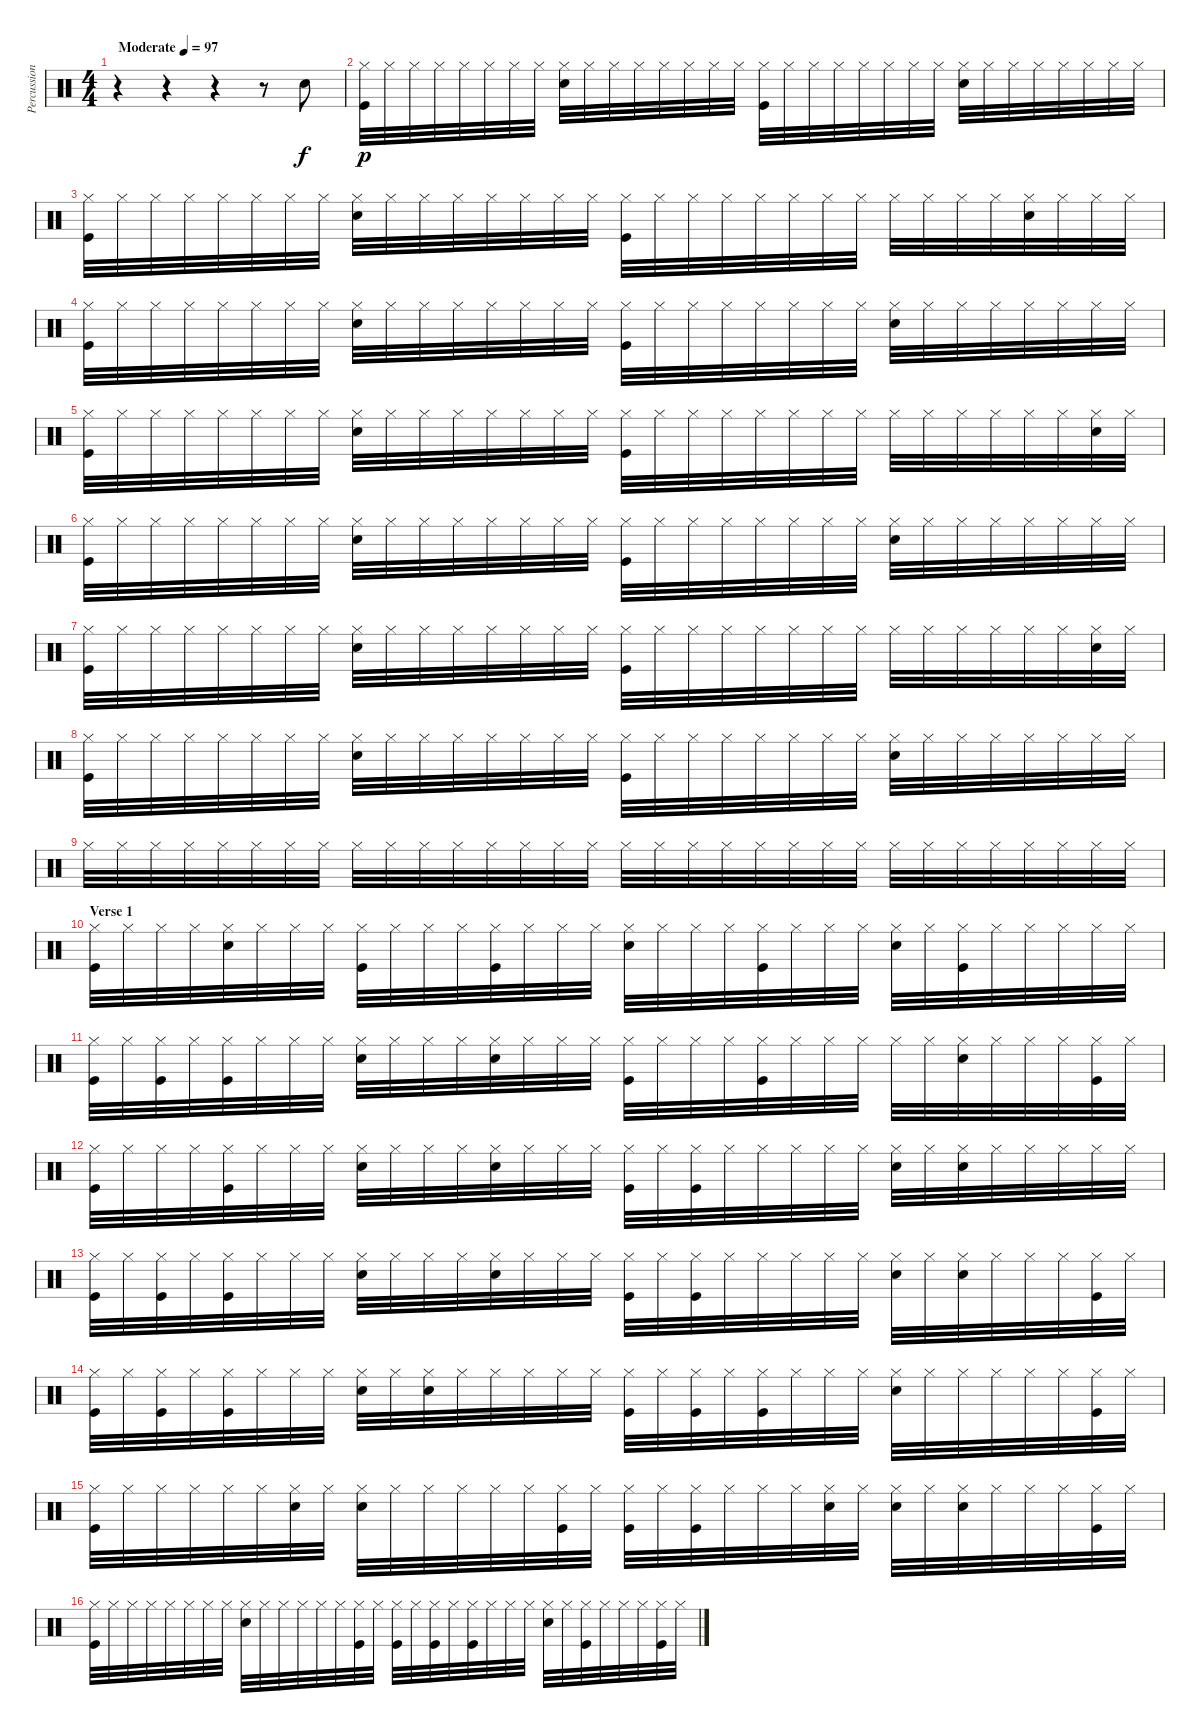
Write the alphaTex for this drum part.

\track ("Percussion" "Percussion") {instrument percussion}
\staff {score}
\articulation defaults
\ts (4 4)
\tempo (97 "Moderate")
\clef neutral
\ks c
r.4{dy f} r.4 r.4 r.8 "Electric Snare (hit)".8 |
("Hi-Hat (closed)" "Kick (hit)").32{dy p} "Hi-Hat (closed)".32 "Hi-Hat (closed)".32 "Hi-Hat (closed)".32 "Hi-Hat (closed)".32 "Hi-Hat (closed)".32 "Hi-Hat (closed)".32 "Hi-Hat (closed)".32 ("Hi-Hat (closed)" "Electric Snare (hit)").32 "Hi-Hat (closed)".32 "Hi-Hat (closed)".32 "Hi-Hat (closed)".32 "Hi-Hat (closed)".32 "Hi-Hat (closed)".32 "Hi-Hat (closed)".32 "Hi-Hat (closed)".32 ("Hi-Hat (closed)" "Kick (hit)").32 "Hi-Hat (closed)".32 "Hi-Hat (closed)".32 "Hi-Hat (closed)".32 "Hi-Hat (closed)".32 "Hi-Hat (closed)".32 "Hi-Hat (closed)".32 "Hi-Hat (closed)".32 ("Hi-Hat (closed)" "Electric Snare (hit)").32 "Hi-Hat (closed)".32 "Hi-Hat (closed)".32 "Hi-Hat (closed)".32 "Hi-Hat (closed)".32 "Hi-Hat (closed)".32 "Hi-Hat (closed)".32 "Hi-Hat (closed)".32 |
("Hi-Hat (closed)" "Kick (hit)").32 "Hi-Hat (closed)".32 "Hi-Hat (closed)".32 "Hi-Hat (closed)".32 "Hi-Hat (closed)".32 "Hi-Hat (closed)".32 "Hi-Hat (closed)".32 "Hi-Hat (closed)".32 ("Hi-Hat (closed)" "Electric Snare (hit)").32 "Hi-Hat (closed)".32 "Hi-Hat (closed)".32 "Hi-Hat (closed)".32 "Hi-Hat (closed)".32 "Hi-Hat (closed)".32 "Hi-Hat (closed)".32 "Hi-Hat (closed)".32 ("Hi-Hat (closed)" "Kick (hit)").32 "Hi-Hat (closed)".32 "Hi-Hat (closed)".32 "Hi-Hat (closed)".32 "Hi-Hat (closed)".32 "Hi-Hat (closed)".32 "Hi-Hat (closed)".32 "Hi-Hat (closed)".32 "Hi-Hat (closed)".32 "Hi-Hat (closed)".32 "Hi-Hat (closed)".32 "Hi-Hat (closed)".32 ("Hi-Hat (closed)" "Electric Snare (hit)").32 "Hi-Hat (closed)".32 "Hi-Hat (closed)".32 "Hi-Hat (closed)".32 |
("Hi-Hat (closed)" "Kick (hit)").32 "Hi-Hat (closed)".32 "Hi-Hat (closed)".32 "Hi-Hat (closed)".32 "Hi-Hat (closed)".32 "Hi-Hat (closed)".32 "Hi-Hat (closed)".32 "Hi-Hat (closed)".32 ("Hi-Hat (closed)" "Electric Snare (hit)").32 "Hi-Hat (closed)".32 "Hi-Hat (closed)".32 "Hi-Hat (closed)".32 "Hi-Hat (closed)".32 "Hi-Hat (closed)".32 "Hi-Hat (closed)".32 "Hi-Hat (closed)".32 ("Hi-Hat (closed)" "Kick (hit)").32 "Hi-Hat (closed)".32 "Hi-Hat (closed)".32 "Hi-Hat (closed)".32 "Hi-Hat (closed)".32 "Hi-Hat (closed)".32 "Hi-Hat (closed)".32 "Hi-Hat (closed)".32 ("Hi-Hat (closed)" "Electric Snare (hit)").32 "Hi-Hat (closed)".32 "Hi-Hat (closed)".32 "Hi-Hat (closed)".32 "Hi-Hat (closed)".32 "Hi-Hat (closed)".32 "Hi-Hat (closed)".32 "Hi-Hat (closed)".32 |
("Hi-Hat (closed)" "Kick (hit)").32 "Hi-Hat (closed)".32 "Hi-Hat (closed)".32 "Hi-Hat (closed)".32 "Hi-Hat (closed)".32 "Hi-Hat (closed)".32 "Hi-Hat (closed)".32 "Hi-Hat (closed)".32 ("Hi-Hat (closed)" "Electric Snare (hit)").32 "Hi-Hat (closed)".32 "Hi-Hat (closed)".32 "Hi-Hat (closed)".32 "Hi-Hat (closed)".32 "Hi-Hat (closed)".32 "Hi-Hat (closed)".32 "Hi-Hat (closed)".32 ("Hi-Hat (closed)" "Kick (hit)").32 "Hi-Hat (closed)".32 "Hi-Hat (closed)".32 "Hi-Hat (closed)".32 "Hi-Hat (closed)".32 "Hi-Hat (closed)".32 "Hi-Hat (closed)".32 "Hi-Hat (closed)".32 "Hi-Hat (closed)".32 "Hi-Hat (closed)".32 "Hi-Hat (closed)".32 "Hi-Hat (closed)".32 "Hi-Hat (closed)".32 "Hi-Hat (closed)".32 ("Hi-Hat (closed)" "Electric Snare (hit)").32 "Hi-Hat (closed)".32 |
("Hi-Hat (closed)" "Kick (hit)").32 "Hi-Hat (closed)".32 "Hi-Hat (closed)".32 "Hi-Hat (closed)".32 "Hi-Hat (closed)".32 "Hi-Hat (closed)".32 "Hi-Hat (closed)".32 "Hi-Hat (closed)".32 ("Hi-Hat (closed)" "Electric Snare (hit)").32 "Hi-Hat (closed)".32 "Hi-Hat (closed)".32 "Hi-Hat (closed)".32 "Hi-Hat (closed)".32 "Hi-Hat (closed)".32 "Hi-Hat (closed)".32 "Hi-Hat (closed)".32 ("Hi-Hat (closed)" "Kick (hit)").32 "Hi-Hat (closed)".32 "Hi-Hat (closed)".32 "Hi-Hat (closed)".32 "Hi-Hat (closed)".32 "Hi-Hat (closed)".32 "Hi-Hat (closed)".32 "Hi-Hat (closed)".32 ("Hi-Hat (closed)" "Electric Snare (hit)").32 "Hi-Hat (closed)".32 "Hi-Hat (closed)".32 "Hi-Hat (closed)".32 "Hi-Hat (closed)".32 "Hi-Hat (closed)".32 "Hi-Hat (closed)".32 "Hi-Hat (closed)".32 |
("Hi-Hat (closed)" "Kick (hit)").32 "Hi-Hat (closed)".32 "Hi-Hat (closed)".32 "Hi-Hat (closed)".32 "Hi-Hat (closed)".32 "Hi-Hat (closed)".32 "Hi-Hat (closed)".32 "Hi-Hat (closed)".32 ("Hi-Hat (closed)" "Electric Snare (hit)").32 "Hi-Hat (closed)".32 "Hi-Hat (closed)".32 "Hi-Hat (closed)".32 "Hi-Hat (closed)".32 "Hi-Hat (closed)".32 "Hi-Hat (closed)".32 "Hi-Hat (closed)".32 ("Hi-Hat (closed)" "Kick (hit)").32 "Hi-Hat (closed)".32 "Hi-Hat (closed)".32 "Hi-Hat (closed)".32 "Hi-Hat (closed)".32 "Hi-Hat (closed)".32 "Hi-Hat (closed)".32 "Hi-Hat (closed)".32 "Hi-Hat (closed)".32 "Hi-Hat (closed)".32 "Hi-Hat (closed)".32 "Hi-Hat (closed)".32 "Hi-Hat (closed)".32 "Hi-Hat (closed)".32 ("Hi-Hat (closed)" "Electric Snare (hit)").32 "Hi-Hat (closed)".32 |
("Hi-Hat (closed)" "Kick (hit)").32 "Hi-Hat (closed)".32 "Hi-Hat (closed)".32 "Hi-Hat (closed)".32 "Hi-Hat (closed)".32 "Hi-Hat (closed)".32 "Hi-Hat (closed)".32 "Hi-Hat (closed)".32 ("Hi-Hat (closed)" "Electric Snare (hit)").32 "Hi-Hat (closed)".32 "Hi-Hat (closed)".32 "Hi-Hat (closed)".32 "Hi-Hat (closed)".32 "Hi-Hat (closed)".32 "Hi-Hat (closed)".32 "Hi-Hat (closed)".32 ("Hi-Hat (closed)" "Kick (hit)").32 "Hi-Hat (closed)".32 "Hi-Hat (closed)".32 "Hi-Hat (closed)".32 "Hi-Hat (closed)".32 "Hi-Hat (closed)".32 "Hi-Hat (closed)".32 "Hi-Hat (closed)".32 ("Hi-Hat (closed)" "Electric Snare (hit)").32 "Hi-Hat (closed)".32 "Hi-Hat (closed)".32 "Hi-Hat (closed)".32 "Hi-Hat (closed)".32 "Hi-Hat (closed)".32 "Hi-Hat (closed)".32 "Hi-Hat (closed)".32 |
"Hi-Hat (closed)".32 "Hi-Hat (closed)".32 "Hi-Hat (closed)".32 "Hi-Hat (closed)".32 "Hi-Hat (closed)".32 "Hi-Hat (closed)".32 "Hi-Hat (closed)".32 "Hi-Hat (closed)".32 "Hi-Hat (closed)".32 "Hi-Hat (closed)".32 "Hi-Hat (closed)".32 "Hi-Hat (closed)".32 "Hi-Hat (closed)".32 "Hi-Hat (closed)".32 "Hi-Hat (closed)".32 "Hi-Hat (closed)".32 "Hi-Hat (closed)".32 "Hi-Hat (closed)".32 "Hi-Hat (closed)".32 "Hi-Hat (closed)".32 "Hi-Hat (closed)".32 "Hi-Hat (closed)".32 "Hi-Hat (closed)".32 "Hi-Hat (closed)".32 "Hi-Hat (closed)".32 "Hi-Hat (closed)".32 "Hi-Hat (closed)".32 "Hi-Hat (closed)".32 "Hi-Hat (closed)".32 "Hi-Hat (closed)".32 "Hi-Hat (closed)".32 "Hi-Hat (closed)".32 |
\section ("" "Verse 1")
("Hi-Hat (closed)" "Kick (hit)").32 "Hi-Hat (closed)".32 "Hi-Hat (closed)".32 "Hi-Hat (closed)".32 ("Hi-Hat (closed)" "Electric Snare (hit)").32 "Hi-Hat (closed)".32 "Hi-Hat (closed)".32 "Hi-Hat (closed)".32 ("Hi-Hat (closed)" "Kick (hit)").32 "Hi-Hat (closed)".32 "Hi-Hat (closed)".32 "Hi-Hat (closed)".32 ("Hi-Hat (closed)" "Kick (hit)").32 "Hi-Hat (closed)".32 "Hi-Hat (closed)".32 "Hi-Hat (closed)".32 ("Hi-Hat (closed)" "Electric Snare (hit)").32 "Hi-Hat (closed)".32 "Hi-Hat (closed)".32 "Hi-Hat (closed)".32 ("Hi-Hat (closed)" "Kick (hit)").32 "Hi-Hat (closed)".32 "Hi-Hat (closed)".32 "Hi-Hat (closed)".32 ("Hi-Hat (closed)" "Electric Snare (hit)").32 "Hi-Hat (closed)".32 ("Hi-Hat (closed)" "Kick (hit)").32 "Hi-Hat (closed)".32 "Hi-Hat (closed)".32 "Hi-Hat (closed)".32 "Hi-Hat (closed)".32 "Hi-Hat (closed)".32 |
("Hi-Hat (closed)" "Kick (hit)").32 "Hi-Hat (closed)".32 ("Hi-Hat (closed)" "Kick (hit)").32 "Hi-Hat (closed)".32 ("Hi-Hat (closed)" "Kick (hit)").32 "Hi-Hat (closed)".32 "Hi-Hat (closed)".32 "Hi-Hat (closed)".32 ("Hi-Hat (closed)" "Electric Snare (hit)").32 "Hi-Hat (closed)".32 "Hi-Hat (closed)".32 "Hi-Hat (closed)".32 ("Hi-Hat (closed)" "Electric Snare (hit)").32 "Hi-Hat (closed)".32 "Hi-Hat (closed)".32 "Hi-Hat (closed)".32 ("Hi-Hat (closed)" "Kick (hit)").32 "Hi-Hat (closed)".32 "Hi-Hat (closed)".32 "Hi-Hat (closed)".32 ("Hi-Hat (closed)" "Kick (hit)").32 "Hi-Hat (closed)".32 "Hi-Hat (closed)".32 "Hi-Hat (closed)".32 "Hi-Hat (closed)".32 "Hi-Hat (closed)".32 ("Hi-Hat (closed)" "Electric Snare (hit)").32 "Hi-Hat (closed)".32 "Hi-Hat (closed)".32 "Hi-Hat (closed)".32 ("Hi-Hat (closed)" "Kick (hit)").32 "Hi-Hat (closed)".32 |
("Hi-Hat (closed)" "Kick (hit)").32 "Hi-Hat (closed)".32 "Hi-Hat (closed)".32 "Hi-Hat (closed)".32 ("Hi-Hat (closed)" "Kick (hit)").32 "Hi-Hat (closed)".32 "Hi-Hat (closed)".32 "Hi-Hat (closed)".32 ("Hi-Hat (closed)" "Electric Snare (hit)").32 "Hi-Hat (closed)".32 "Hi-Hat (closed)".32 "Hi-Hat (closed)".32 ("Hi-Hat (closed)" "Electric Snare (hit)").32 "Hi-Hat (closed)".32 "Hi-Hat (closed)".32 "Hi-Hat (closed)".32 ("Hi-Hat (closed)" "Kick (hit)").32 "Hi-Hat (closed)".32 ("Hi-Hat (closed)" "Kick (hit)").32 "Hi-Hat (closed)".32 "Hi-Hat (closed)".32 "Hi-Hat (closed)".32 "Hi-Hat (closed)".32 "Hi-Hat (closed)".32 ("Hi-Hat (closed)" "Electric Snare (hit)").32 "Hi-Hat (closed)".32 ("Hi-Hat (closed)" "Electric Snare (hit)").32 "Hi-Hat (closed)".32 "Hi-Hat (closed)".32 "Hi-Hat (closed)".32 "Hi-Hat (closed)".32 "Hi-Hat (closed)".32 |
("Hi-Hat (closed)" "Kick (hit)").32 "Hi-Hat (closed)".32 ("Hi-Hat (closed)" "Kick (hit)").32 "Hi-Hat (closed)".32 ("Hi-Hat (closed)" "Kick (hit)").32 "Hi-Hat (closed)".32 "Hi-Hat (closed)".32 "Hi-Hat (closed)".32 ("Hi-Hat (closed)" "Electric Snare (hit)").32 "Hi-Hat (closed)".32 "Hi-Hat (closed)".32 "Hi-Hat (closed)".32 ("Hi-Hat (closed)" "Electric Snare (hit)").32 "Hi-Hat (closed)".32 "Hi-Hat (closed)".32 "Hi-Hat (closed)".32 ("Hi-Hat (closed)" "Kick (hit)").32 "Hi-Hat (closed)".32 ("Hi-Hat (closed)" "Kick (hit)").32 "Hi-Hat (closed)".32 "Hi-Hat (closed)".32 "Hi-Hat (closed)".32 "Hi-Hat (closed)".32 "Hi-Hat (closed)".32 ("Hi-Hat (closed)" "Electric Snare (hit)").32 "Hi-Hat (closed)".32 ("Hi-Hat (closed)" "Electric Snare (hit)").32 "Hi-Hat (closed)".32 "Hi-Hat (closed)".32 "Hi-Hat (closed)".32 ("Hi-Hat (closed)" "Kick (hit)").32 "Hi-Hat (closed)".32 |
("Hi-Hat (closed)" "Kick (hit)").32 "Hi-Hat (closed)".32 ("Hi-Hat (closed)" "Kick (hit)").32 "Hi-Hat (closed)".32 ("Hi-Hat (closed)" "Kick (hit)").32 "Hi-Hat (closed)".32 "Hi-Hat (closed)".32 "Hi-Hat (closed)".32 ("Hi-Hat (closed)" "Electric Snare (hit)").32 "Hi-Hat (closed)".32 ("Hi-Hat (closed)" "Electric Snare (hit)").32 "Hi-Hat (closed)".32 "Hi-Hat (closed)".32 "Hi-Hat (closed)".32 "Hi-Hat (closed)".32 "Hi-Hat (closed)".32 ("Hi-Hat (closed)" "Kick (hit)").32 "Hi-Hat (closed)".32 ("Hi-Hat (closed)" "Kick (hit)").32 "Hi-Hat (closed)".32 ("Hi-Hat (closed)" "Kick (hit)").32 "Hi-Hat (closed)".32 "Hi-Hat (closed)".32 "Hi-Hat (closed)".32 ("Hi-Hat (closed)" "Electric Snare (hit)").32 "Hi-Hat (closed)".32 "Hi-Hat (closed)".32 "Hi-Hat (closed)".32 "Hi-Hat (closed)".32 "Hi-Hat (closed)".32 ("Hi-Hat (closed)" "Kick (hit)").32 "Hi-Hat (closed)".32 |
("Hi-Hat (closed)" "Kick (hit)").32 "Hi-Hat (closed)".32 "Hi-Hat (closed)".32 "Hi-Hat (closed)".32 "Hi-Hat (closed)".32 "Hi-Hat (closed)".32 ("Hi-Hat (closed)" "Electric Snare (hit)").32 "Hi-Hat (closed)".32 ("Hi-Hat (closed)" "Electric Snare (hit)").32 "Hi-Hat (closed)".32 "Hi-Hat (closed)".32 "Hi-Hat (closed)".32 "Hi-Hat (closed)".32 "Hi-Hat (closed)".32 ("Hi-Hat (closed)" "Kick (hit)").32 "Hi-Hat (closed)".32 ("Hi-Hat (closed)" "Kick (hit)").32 "Hi-Hat (closed)".32 ("Hi-Hat (closed)" "Kick (hit)").32 "Hi-Hat (closed)".32 "Hi-Hat (closed)".32 "Hi-Hat (closed)".32 ("Hi-Hat (closed)" "Electric Snare (hit)").32 "Hi-Hat (closed)".32 ("Hi-Hat (closed)" "Electric Snare (hit)").32 "Hi-Hat (closed)".32 ("Hi-Hat (closed)" "Electric Snare (hit)").32 "Hi-Hat (closed)".32 "Hi-Hat (closed)".32 "Hi-Hat (closed)".32 ("Hi-Hat (closed)" "Kick (hit)").32 "Hi-Hat (closed)".32 |
("Hi-Hat (closed)" "Kick (hit)").32 "Hi-Hat (closed)".32 "Hi-Hat (closed)".32 "Hi-Hat (closed)".32 "Hi-Hat (closed)".32 "Hi-Hat (closed)".32 "Hi-Hat (closed)".32 "Hi-Hat (closed)".32 ("Hi-Hat (closed)" "Electric Snare (hit)").32 "Hi-Hat (closed)".32 "Hi-Hat (closed)".32 "Hi-Hat (closed)".32 "Hi-Hat (closed)".32 "Hi-Hat (closed)".32 ("Hi-Hat (closed)" "Kick (hit)").32 "Hi-Hat (closed)".32 ("Hi-Hat (closed)" "Kick (hit)").32 "Hi-Hat (closed)".32 ("Hi-Hat (closed)" "Kick (hit)").32 "Hi-Hat (closed)".32 ("Hi-Hat (closed)" "Kick (hit)").32 "Hi-Hat (closed)".32 "Hi-Hat (closed)".32 "Hi-Hat (closed)".32 ("Hi-Hat (closed)" "Electric Snare (hit)").32 "Hi-Hat (closed)".32 ("Hi-Hat (closed)" "Kick (hit)").32 "Hi-Hat (closed)".32 "Hi-Hat (closed)".32 "Hi-Hat (closed)".32 ("Hi-Hat (closed)" "Kick (hit)").32 "Hi-Hat (closed)".32
